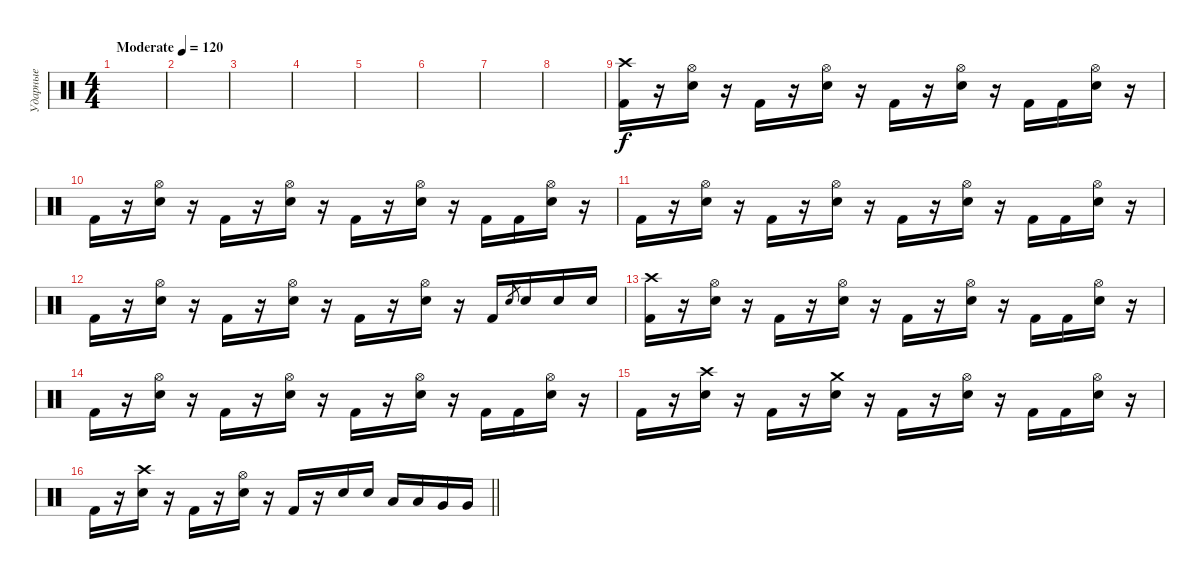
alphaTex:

\track ("Ударные" "Ударные") {instrument percussion}
\staff {score}
\articulation defaults
\ts (4 4)
\tempo (120 "Moderate")
\clef neutral
\ks c
|
|
|
|
|
|
|
|
("Crash high (hit)" "Kick (hit) 2").16 r.16 ("Hi-Hat (open)" "Electric Snare (hit)").16 r.16 "Kick (hit) 2".16 r.16 ("Hi-Hat (open)" "Electric Snare (hit)").16 r.16 "Kick (hit) 2".16 r.16 ("Hi-Hat (open)" "Electric Snare (hit)").16 r.16 "Kick (hit) 2".16 "Kick (hit) 2".16 ("Hi-Hat (open)" "Electric Snare (hit)").16 r.16 |
"Kick (hit) 2".16 r.16 ("Hi-Hat (open)" "Electric Snare (hit)").16 r.16 "Kick (hit) 2".16 r.16 ("Hi-Hat (open)" "Electric Snare (hit)").16 r.16 "Kick (hit) 2".16 r.16 ("Hi-Hat (open)" "Electric Snare (hit)").16 r.16 "Kick (hit) 2".16 "Kick (hit) 2".16 ("Hi-Hat (open)" "Electric Snare (hit)").16 r.16 |
"Kick (hit) 2".16 r.16 ("Hi-Hat (open)" "Electric Snare (hit)").16 r.16 "Kick (hit) 2".16 r.16 ("Hi-Hat (open)" "Electric Snare (hit)").16 r.16 "Kick (hit) 2".16 r.16 ("Hi-Hat (open)" "Electric Snare (hit)").16 r.16 "Kick (hit) 2".16 "Kick (hit) 2".16 ("Hi-Hat (open)" "Electric Snare (hit)").16 r.16 |
"Kick (hit) 2".16 r.16 ("Hi-Hat (open)" "Electric Snare (hit)").16 r.16 "Kick (hit) 2".16 r.16 ("Hi-Hat (open)" "Electric Snare (hit)").16 r.16 "Kick (hit) 2".16 r.16 ("Hi-Hat (open)" "Electric Snare (hit)").16 r.16 "Kick (hit) 2".16 "Electric Snare (hit)".8{gr} "Electric Snare (hit)".16 "Electric Snare (hit)".16 "Electric Snare (hit)".16 |
("Crash high (hit)" "Kick (hit) 2").16 r.16 ("Hi-Hat (open)" "Electric Snare (hit)").16 r.16 "Kick (hit) 2".16 r.16 ("Hi-Hat (open)" "Electric Snare (hit)").16 r.16 "Kick (hit) 2".16 r.16 ("Hi-Hat (open)" "Electric Snare (hit)").16 r.16 "Kick (hit) 2".16 "Kick (hit) 2".16 ("Hi-Hat (open)" "Electric Snare (hit)").16 r.16 |
"Kick (hit) 2".16 r.16 ("Hi-Hat (open)" "Electric Snare (hit)").16 r.16 "Kick (hit) 2".16 r.16 ("Hi-Hat (open)" "Electric Snare (hit)").16 r.16 "Kick (hit) 2".16 r.16 ("Hi-Hat (open)" "Electric Snare (hit)").16 r.16 "Kick (hit) 2".16 "Kick (hit) 2".16 ("Hi-Hat (open)" "Electric Snare (hit)").16 r.16 |
"Kick (hit) 2".16 r.16 ("Crash high (hit)" "Electric Snare (hit)").16 r.16 "Kick (hit) 2".16 r.16 ("Crash medium (hit)" "Electric Snare (hit)").16 r.16 "Kick (hit) 2".16 r.16 ("Hi-Hat (open)" "Electric Snare (hit)").16 r.16 "Kick (hit) 2".16 "Kick (hit) 2".16 ("Hi-Hat (open)" "Electric Snare (hit)").16 r.16 |
\barLineRight lightlight "Kick (hit) 2".16
r.16 ("Crash high (hit)" "Electric Snare (hit)").16 r.16 "Kick (hit) 2".16 r.16 ("Hi-Hat (open)" "Electric Snare (hit)").16 r.16 "Kick (hit) 2".16 r.16 "Electric Snare (hit)".16 "Electric Snare (hit)".16 "Low Tom (hit)".16 "Low Tom (hit)".16 "Very Low Tom (hit)".16 "Very Low Tom (hit)".16
